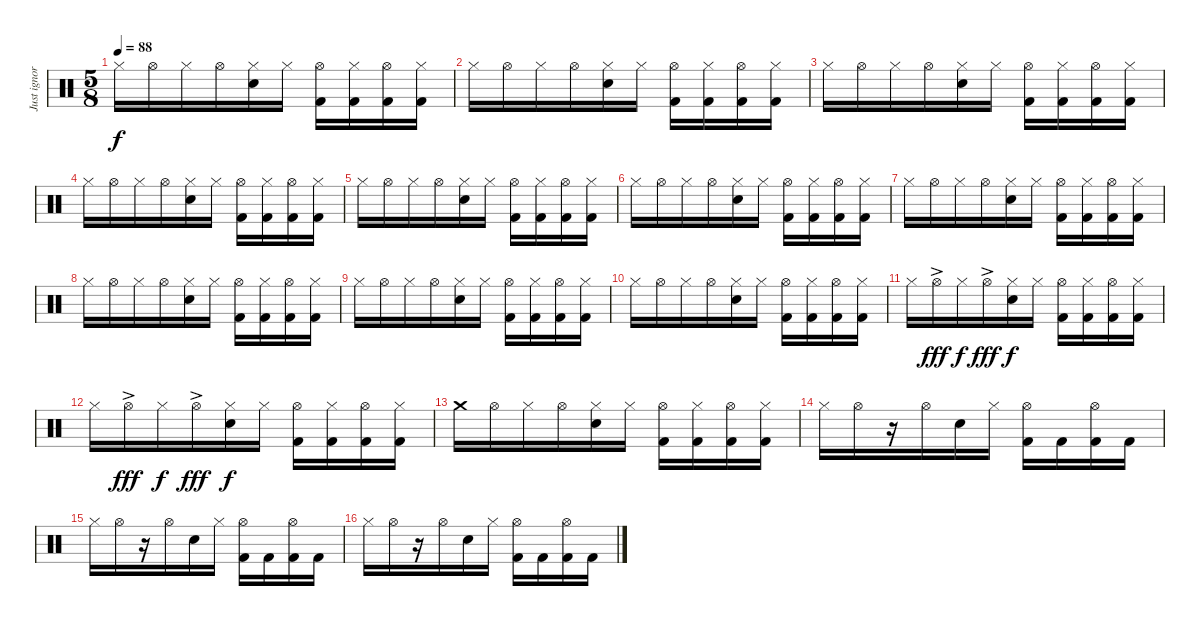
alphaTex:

\track ("Just ignore this track" "Just ignor") {instrument percussion}
\staff {score}
\articulation defaults
\ts (5 8)
\tempo 88
\clef neutral
\ks c "Hi-Hat (closed)".16{dy f} "Hi-Hat (open)".16 "Hi-Hat (closed)".16 "Hi-Hat (open)".16
("Hi-Hat (closed)" "Electric Snare (hit)").16 "Hi-Hat (closed)".16 ("Hi-Hat (open)" "Kick (hit) 2").16 ("Hi-Hat (closed)" "Kick (hit) 2").16 ("Hi-Hat (open)" "Kick (hit) 2").16 ("Hi-Hat (closed)" "Kick (hit) 2").16 |
"Hi-Hat (closed)".16 "Hi-Hat (open)".16 "Hi-Hat (closed)".16 "Hi-Hat (open)".16 ("Hi-Hat (closed)" "Electric Snare (hit)").16 "Hi-Hat (closed)".16 ("Hi-Hat (open)" "Kick (hit) 2").16 ("Hi-Hat (closed)" "Kick (hit) 2").16 ("Hi-Hat (open)" "Kick (hit) 2").16 ("Hi-Hat (closed)" "Kick (hit) 2").16 |
"Hi-Hat (closed)".16 "Hi-Hat (open)".16 "Hi-Hat (closed)".16 "Hi-Hat (open)".16 ("Hi-Hat (closed)" "Electric Snare (hit)").16 "Hi-Hat (closed)".16 ("Hi-Hat (open)" "Kick (hit) 2").16 ("Hi-Hat (closed)" "Kick (hit) 2").16 ("Hi-Hat (open)" "Kick (hit) 2").16 ("Hi-Hat (closed)" "Kick (hit) 2").16 |
"Hi-Hat (closed)".16 "Hi-Hat (open)".16 "Hi-Hat (closed)".16 "Hi-Hat (open)".16 ("Hi-Hat (closed)" "Electric Snare (hit)").16 "Hi-Hat (closed)".16 ("Hi-Hat (open)" "Kick (hit) 2").16 ("Hi-Hat (closed)" "Kick (hit) 2").16 ("Hi-Hat (open)" "Kick (hit) 2").16 ("Hi-Hat (closed)" "Kick (hit) 2").16 |
"Hi-Hat (closed)".16 "Hi-Hat (open)".16 "Hi-Hat (closed)".16 "Hi-Hat (open)".16 ("Hi-Hat (closed)" "Electric Snare (hit)").16 "Hi-Hat (closed)".16 ("Hi-Hat (open)" "Kick (hit) 2").16 ("Hi-Hat (closed)" "Kick (hit) 2").16 ("Hi-Hat (open)" "Kick (hit) 2").16 ("Hi-Hat (closed)" "Kick (hit) 2").16 |
"Hi-Hat (closed)".16 "Hi-Hat (open)".16 "Hi-Hat (closed)".16 "Hi-Hat (open)".16 ("Hi-Hat (closed)" "Electric Snare (hit)").16 "Hi-Hat (closed)".16 ("Hi-Hat (open)" "Kick (hit) 2").16 ("Hi-Hat (closed)" "Kick (hit) 2").16 ("Hi-Hat (open)" "Kick (hit) 2").16 ("Hi-Hat (closed)" "Kick (hit) 2").16 |
"Hi-Hat (closed)".16 "Hi-Hat (open)".16 "Hi-Hat (closed)".16 "Hi-Hat (open)".16 ("Hi-Hat (closed)" "Electric Snare (hit)").16 "Hi-Hat (closed)".16 ("Hi-Hat (open)" "Kick (hit) 2").16 ("Hi-Hat (closed)" "Kick (hit) 2").16 ("Hi-Hat (open)" "Kick (hit) 2").16 ("Hi-Hat (closed)" "Kick (hit) 2").16 |
"Hi-Hat (closed)".16 "Hi-Hat (open)".16 "Hi-Hat (closed)".16 "Hi-Hat (open)".16 ("Hi-Hat (closed)" "Electric Snare (hit)").16 "Hi-Hat (closed)".16 ("Hi-Hat (open)" "Kick (hit) 2").16 ("Hi-Hat (closed)" "Kick (hit) 2").16 ("Hi-Hat (open)" "Kick (hit) 2").16 ("Hi-Hat (closed)" "Kick (hit) 2").16 |
"Hi-Hat (closed)".16 "Hi-Hat (open)".16 "Hi-Hat (closed)".16 "Hi-Hat (open)".16 ("Hi-Hat (closed)" "Electric Snare (hit)").16 "Hi-Hat (closed)".16 ("Hi-Hat (open)" "Kick (hit) 2").16 ("Hi-Hat (closed)" "Kick (hit) 2").16 ("Hi-Hat (open)" "Kick (hit) 2").16 ("Hi-Hat (closed)" "Kick (hit) 2").16 |
"Hi-Hat (closed)".16 "Hi-Hat (open)".16 "Hi-Hat (closed)".16 "Hi-Hat (open)".16 ("Hi-Hat (closed)" "Electric Snare (hit)").16 "Hi-Hat (closed)".16 ("Hi-Hat (open)" "Kick (hit) 2").16 ("Hi-Hat (closed)" "Kick (hit) 2").16 ("Hi-Hat (open)" "Kick (hit) 2").16 ("Hi-Hat (closed)" "Kick (hit) 2").16 |
"Hi-Hat (closed)".16 "Hi-Hat (open)"{ac}.16{dy fff} "Hi-Hat (closed)".16{dy f} "Hi-Hat (open)"{ac}.16{dy fff} ("Hi-Hat (closed)" "Electric Snare (hit)").16{dy f} "Hi-Hat (closed)".16 ("Hi-Hat (open)" "Kick (hit) 2").16 ("Hi-Hat (closed)" "Kick (hit) 2").16 ("Hi-Hat (open)" "Kick (hit) 2").16 ("Hi-Hat (closed)" "Kick (hit) 2").16 |
"Hi-Hat (closed)".16 "Hi-Hat (open)"{ac}.16{dy fff} "Hi-Hat (closed)".16{dy f} "Hi-Hat (open)"{ac}.16{dy fff} ("Hi-Hat (closed)" "Electric Snare (hit)").16{dy f} "Hi-Hat (closed)".16 ("Hi-Hat (open)" "Kick (hit) 2").16 ("Hi-Hat (closed)" "Kick (hit) 2").16 ("Hi-Hat (open)" "Kick (hit) 2").16 ("Hi-Hat (closed)" "Kick (hit) 2").16 |
"Crash medium (hit)".16 "Hi-Hat (open)".16 "Hi-Hat (closed)".16 "Hi-Hat (open)".16 ("Hi-Hat (closed)" "Electric Snare (hit)").16 "Hi-Hat (closed)".16 ("Hi-Hat (open)" "Kick (hit) 2").16 ("Hi-Hat (closed)" "Kick (hit) 2").16 ("Hi-Hat (open)" "Kick (hit) 2").16 ("Hi-Hat (closed)" "Kick (hit) 2").16 |
"Hi-Hat (closed)".16 "Hi-Hat (open)".16 r.16 "Hi-Hat (open)".16 "Electric Snare (hit)".16 "Hi-Hat (closed)".16 ("Hi-Hat (open)" "Kick (hit) 2").16 "Kick (hit) 2".16 ("Hi-Hat (open)" "Kick (hit) 2").16 "Kick (hit) 2".16 |
"Hi-Hat (closed)".16 "Hi-Hat (open)".16 r.16 "Hi-Hat (open)".16 "Electric Snare (hit)".16 "Hi-Hat (closed)".16 ("Hi-Hat (open)" "Kick (hit) 2").16 "Kick (hit) 2".16 ("Hi-Hat (open)" "Kick (hit) 2").16 "Kick (hit) 2".16 |
"Hi-Hat (closed)".16 "Hi-Hat (open)".16 r.16 "Hi-Hat (open)".16 "Electric Snare (hit)".16 "Hi-Hat (closed)".16 ("Hi-Hat (open)" "Kick (hit) 2").16 "Kick (hit) 2".16 ("Hi-Hat (open)" "Kick (hit) 2").16 "Kick (hit) 2".16
